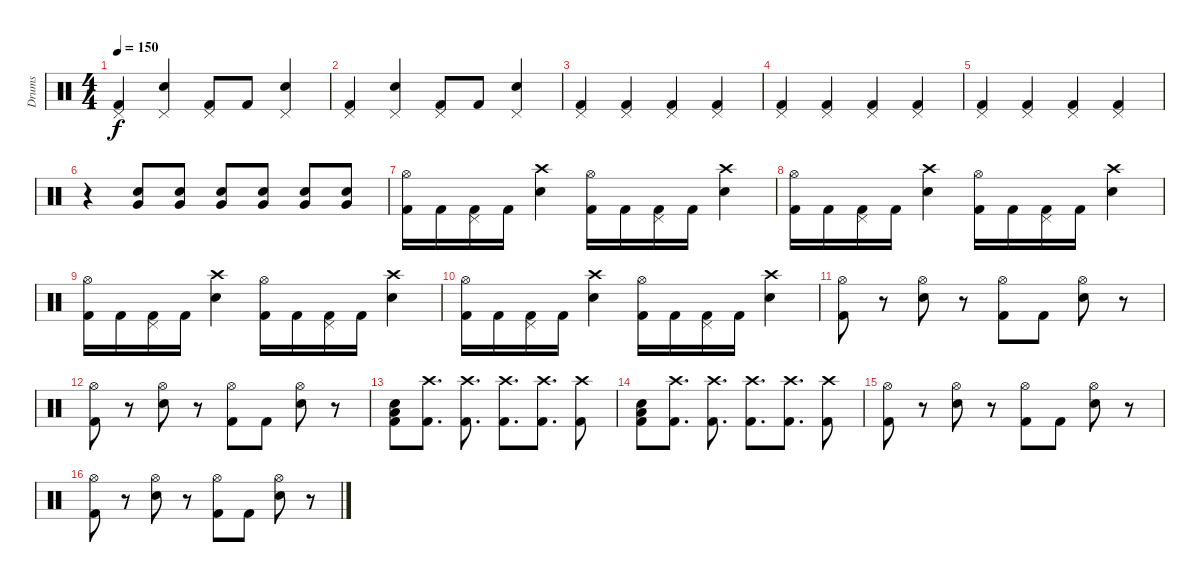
\track ("Drums" "Drums") {instrument percussion}
\staff {score}
\articulation defaults
\ts (4 4)
\tempo 150
\clef neutral
\ks c
("Pedal Hi-Hat (hit)" "Kick (hit) 2").4{dy f} ("Pedal Hi-Hat (hit)" "Snare (hit) 2").4 ("Pedal Hi-Hat (hit)" "Kick (hit) 2").8 "Kick (hit) 2".8 ("Pedal Hi-Hat (hit)" "Snare (hit) 2").4 |
("Pedal Hi-Hat (hit)" "Kick (hit) 2").4 ("Pedal Hi-Hat (hit)" "Snare (hit) 2").4 ("Pedal Hi-Hat (hit)" "Kick (hit) 2").8 "Kick (hit) 2".8 ("Pedal Hi-Hat (hit)" "Snare (hit) 2").4 |
("Pedal Hi-Hat (hit)" "Kick (hit) 2").4 ("Pedal Hi-Hat (hit)" "Kick (hit) 2").4 ("Pedal Hi-Hat (hit)" "Kick (hit) 2").4 ("Pedal Hi-Hat (hit)" "Kick (hit) 2").4 |
("Pedal Hi-Hat (hit)" "Kick (hit) 2").4 ("Pedal Hi-Hat (hit)" "Kick (hit) 2").4 ("Pedal Hi-Hat (hit)" "Kick (hit) 2").4 ("Pedal Hi-Hat (hit)" "Kick (hit) 2").4 |
("Pedal Hi-Hat (hit)" "Kick (hit) 2").4 ("Pedal Hi-Hat (hit)" "Kick (hit) 2").4 ("Pedal Hi-Hat (hit)" "Kick (hit) 2").4 ("Pedal Hi-Hat (hit)" "Kick (hit) 2").4 |
r.4 ("Very Low Tom (hit)" "Snare (hit) 2").8 ("Very Low Tom (hit)" "Snare (hit) 2").8 ("Very Low Tom (hit)" "Snare (hit) 2").8 ("Very Low Tom (hit)" "Snare (hit) 2").8 ("Very Low Tom (hit)" "Snare (hit) 2").8 ("Very Low Tom (hit)" "Snare (hit) 2").8 |
("Hi-Hat (open)" "Kick (hit) 2").16 "Kick (hit) 2".16 ("Pedal Hi-Hat (hit)" "Kick (hit) 2").16 "Kick (hit) 2".16 ("Crash high (hit)" "Snare (hit) 2").4 ("Hi-Hat (open)" "Kick (hit) 2").16 "Kick (hit) 2".16 ("Pedal Hi-Hat (hit)" "Kick (hit) 2").16 "Kick (hit) 2".16 ("Crash high (hit)" "Snare (hit) 2").4 |
("Hi-Hat (open)" "Kick (hit) 2").16 "Kick (hit) 2".16 ("Pedal Hi-Hat (hit)" "Kick (hit) 2").16 "Kick (hit) 2".16 ("Crash high (hit)" "Snare (hit) 2").4 ("Hi-Hat (open)" "Kick (hit) 2").16 "Kick (hit) 2".16 ("Pedal Hi-Hat (hit)" "Kick (hit) 2").16 "Kick (hit) 2".16 ("Crash high (hit)" "Snare (hit) 2").4 |
("Hi-Hat (open)" "Kick (hit) 2").16 "Kick (hit) 2".16 ("Pedal Hi-Hat (hit)" "Kick (hit) 2").16 "Kick (hit) 2".16 ("Crash high (hit)" "Snare (hit) 2").4 ("Hi-Hat (open)" "Kick (hit) 2").16 "Kick (hit) 2".16 ("Pedal Hi-Hat (hit)" "Kick (hit) 2").16 "Kick (hit) 2".16 ("Crash high (hit)" "Snare (hit) 2").4 |
("Hi-Hat (open)" "Kick (hit) 2").16 "Kick (hit) 2".16 ("Pedal Hi-Hat (hit)" "Kick (hit) 2").16 "Kick (hit) 2".16 ("Crash high (hit)" "Snare (hit) 2").4 ("Hi-Hat (open)" "Kick (hit) 2").16 "Kick (hit) 2".16 ("Pedal Hi-Hat (hit)" "Kick (hit) 2").16 "Kick (hit) 2".16 ("Crash high (hit)" "Snare (hit) 2").4 |
("Hi-Hat (open)" "Kick (hit) 2").8 r.8 ("Hi-Hat (open)" "Snare (hit) 2").8 r.8 ("Hi-Hat (open)" "Kick (hit) 2").8 "Kick (hit) 2".8 ("Hi-Hat (open)" "Snare (hit) 2").8 r.8 |
("Hi-Hat (open)" "Kick (hit) 2").8 r.8 ("Hi-Hat (open)" "Snare (hit) 2").8 r.8 ("Hi-Hat (open)" "Kick (hit) 2").8 "Kick (hit) 2".8 ("Hi-Hat (open)" "Snare (hit) 2").8 r.8 |
("Low Floor Tom (hit)" "Snare (hit) 2" "Kick (hit) 2").8 ("Crash high (hit)" "Kick (hit) 2").8{d} ("Crash high (hit)" "Kick (hit) 2").8{d} ("Crash high (hit)" "Kick (hit) 2").8{d} ("Crash high (hit)" "Kick (hit) 2").8{d} ("Crash high (hit)" "Kick (hit) 2").8 |
("Low Floor Tom (hit)" "Snare (hit) 2" "Kick (hit) 2").8 ("Crash high (hit)" "Kick (hit) 2").8{d} ("Crash high (hit)" "Kick (hit) 2").8{d} ("Crash high (hit)" "Kick (hit) 2").8{d} ("Crash high (hit)" "Kick (hit) 2").8{d} ("Crash high (hit)" "Kick (hit) 2").8 |
("Hi-Hat (open)" "Kick (hit) 2").8 r.8 ("Hi-Hat (open)" "Snare (hit) 2").8 r.8 ("Hi-Hat (open)" "Kick (hit) 2").8 "Kick (hit) 2".8 ("Hi-Hat (open)" "Snare (hit) 2").8 r.8 |
("Hi-Hat (open)" "Kick (hit) 2").8 r.8 ("Hi-Hat (open)" "Snare (hit) 2").8 r.8 ("Hi-Hat (open)" "Kick (hit) 2").8 "Kick (hit) 2".8 ("Hi-Hat (open)" "Snare (hit) 2").8 r.8
